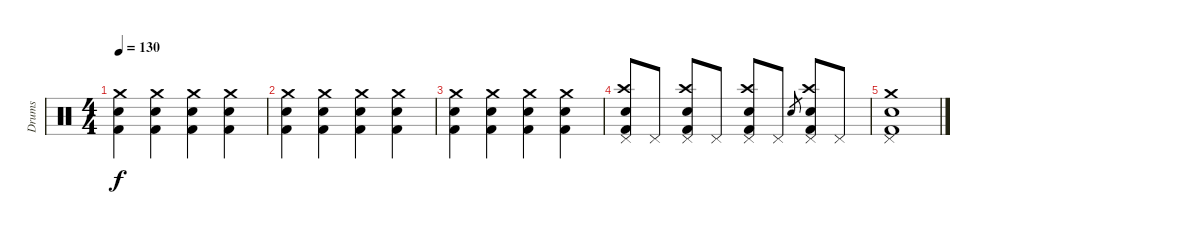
\track ("Drums" "Drums") {instrument percussion}
\staff {score}
\articulation defaults
\ts (4 4)
\tempo 130
\clef neutral
\ks c
("Crash medium (hit)" "Electric Snare (hit)" "Kick (hit) 2").4{dy f} ("Crash medium (hit)" "Electric Snare (hit)" "Kick (hit) 2").4 ("Crash medium (hit)" "Electric Snare (hit)" "Kick (hit) 2").4 ("Crash medium (hit)" "Electric Snare (hit)" "Kick (hit) 2").4 |
("Crash medium (hit)" "Electric Snare (hit)" "Kick (hit) 2").4 ("Crash medium (hit)" "Electric Snare (hit)" "Kick (hit) 2").4 ("Crash medium (hit)" "Electric Snare (hit)" "Kick (hit) 2").4 ("Crash medium (hit)" "Electric Snare (hit)" "Kick (hit) 2").4 |
("Crash medium (hit)" "Electric Snare (hit)" "Kick (hit) 2").4 ("Crash medium (hit)" "Electric Snare (hit)" "Kick (hit) 2").4 ("Crash medium (hit)" "Electric Snare (hit)" "Kick (hit) 2").4 ("Crash medium (hit)" "Electric Snare (hit)" "Kick (hit) 2").4 |
("Crash high (hit)" "Pedal Hi-Hat (hit)" "Electric Snare (hit)" "Kick (hit) 2").8 "Pedal Hi-Hat (hit)".8 ("Crash high (hit)" "Pedal Hi-Hat (hit)" "Electric Snare (hit)" "Kick (hit) 2").8 "Pedal Hi-Hat (hit)".8 ("Crash high (hit)" "Pedal Hi-Hat (hit)" "Electric Snare (hit)" "Kick (hit) 2").8 "Pedal Hi-Hat (hit)".8 "Electric Snare (hit)".8{gr} ("Crash high (hit)" "Pedal Hi-Hat (hit)" "Electric Snare (hit)" "Kick (hit) 2").8 "Pedal Hi-Hat (hit)".8 |
("Crash medium (hit)" "Pedal Hi-Hat (hit)" "Electric Snare (hit)" "Kick (hit) 2").1
